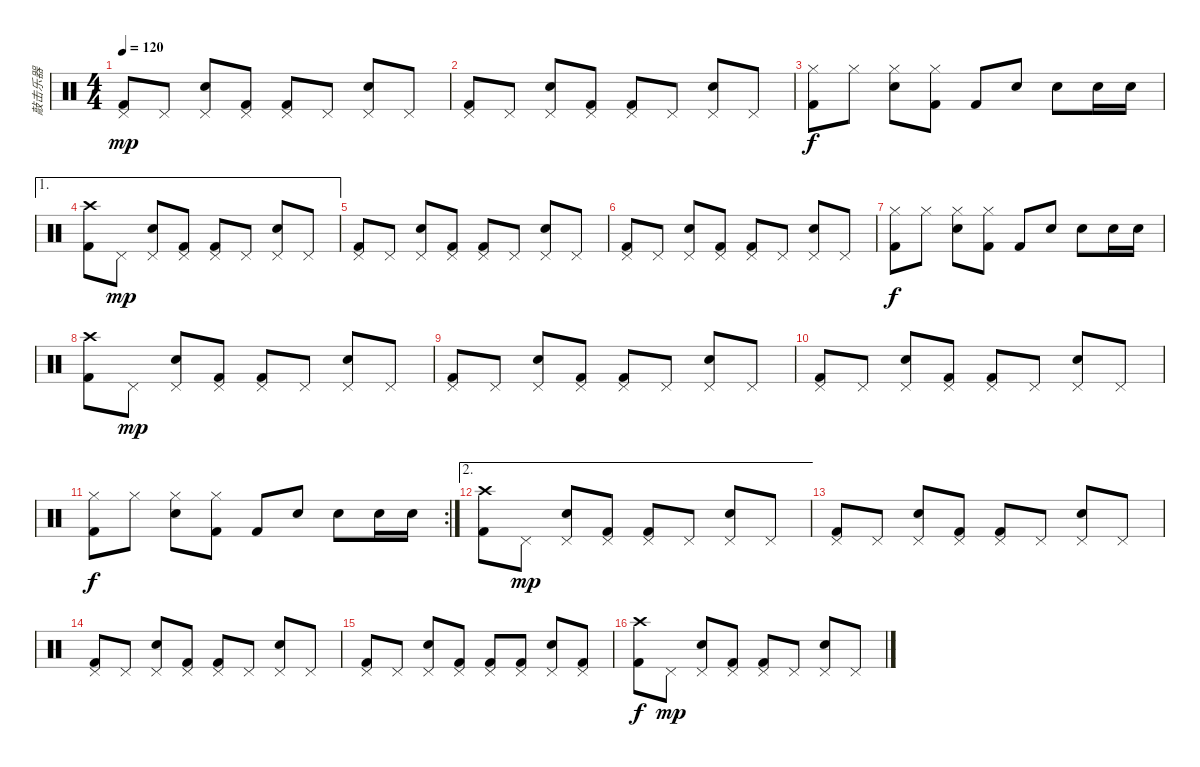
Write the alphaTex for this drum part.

\track ("敲击乐器" "敲击乐器") {instrument percussion}
\staff {score}
\articulation defaults
\ts (4 4)
\tempo 120
\clef neutral
\ks c
("Pedal Hi-Hat (hit)" "Kick (hit) 2").8{dy mp} "Pedal Hi-Hat (hit)".8 ("Pedal Hi-Hat (hit)" "Electric Snare (hit)").8 ("Pedal Hi-Hat (hit)" "Kick (hit) 2").8 ("Pedal Hi-Hat (hit)" "Kick (hit) 2").8 "Pedal Hi-Hat (hit)".8 ("Pedal Hi-Hat (hit)" "Electric Snare (hit)").8 "Pedal Hi-Hat (hit)".8 |
("Pedal Hi-Hat (hit)" "Kick (hit) 2").8 "Pedal Hi-Hat (hit)".8 ("Pedal Hi-Hat (hit)" "Electric Snare (hit)").8 ("Pedal Hi-Hat (hit)" "Kick (hit) 2").8 ("Pedal Hi-Hat (hit)" "Kick (hit) 2").8 "Pedal Hi-Hat (hit)".8 ("Pedal Hi-Hat (hit)" "Electric Snare (hit)").8 "Pedal Hi-Hat (hit)".8 |
("Hi-Hat (closed)" "Kick (hit) 2").8{dy f} "Hi-Hat (closed)".8 ("Hi-Hat (closed)" "Electric Snare (hit)").8 ("Hi-Hat (closed)" "Kick (hit) 2").8 "Kick (hit) 2".8 "Electric Snare (hit)".8 "Electric Snare (hit)".8 "Electric Snare (hit)".16 "Electric Snare (hit)".16 |
\ae 1
("Crash high (hit)" "Kick (hit) 2").8 "Pedal Hi-Hat (hit)".8{dy mp} ("Pedal Hi-Hat (hit)" "Electric Snare (hit)").8 ("Pedal Hi-Hat (hit)" "Kick (hit) 2").8 ("Pedal Hi-Hat (hit)" "Kick (hit) 2").8 "Pedal Hi-Hat (hit)".8 ("Pedal Hi-Hat (hit)" "Electric Snare (hit)").8 "Pedal Hi-Hat (hit)".8 |
("Pedal Hi-Hat (hit)" "Kick (hit) 2").8 "Pedal Hi-Hat (hit)".8 ("Pedal Hi-Hat (hit)" "Electric Snare (hit)").8 ("Pedal Hi-Hat (hit)" "Kick (hit) 2").8 ("Pedal Hi-Hat (hit)" "Kick (hit) 2").8 "Pedal Hi-Hat (hit)".8 ("Pedal Hi-Hat (hit)" "Electric Snare (hit)").8 "Pedal Hi-Hat (hit)".8 |
("Pedal Hi-Hat (hit)" "Kick (hit) 2").8 "Pedal Hi-Hat (hit)".8 ("Pedal Hi-Hat (hit)" "Electric Snare (hit)").8 ("Pedal Hi-Hat (hit)" "Kick (hit) 2").8 ("Pedal Hi-Hat (hit)" "Kick (hit) 2").8 "Pedal Hi-Hat (hit)".8 ("Pedal Hi-Hat (hit)" "Electric Snare (hit)").8 "Pedal Hi-Hat (hit)".8 |
("Hi-Hat (closed)" "Kick (hit) 2").8{dy f} "Hi-Hat (closed)".8 ("Hi-Hat (closed)" "Electric Snare (hit)").8 ("Hi-Hat (closed)" "Kick (hit) 2").8 "Kick (hit) 2".8 "Electric Snare (hit)".8 "Electric Snare (hit)".8 "Electric Snare (hit)".16 "Electric Snare (hit)".16 |
("Crash high (hit)" "Kick (hit) 2").8 "Pedal Hi-Hat (hit)".8{dy mp} ("Pedal Hi-Hat (hit)" "Electric Snare (hit)").8 ("Pedal Hi-Hat (hit)" "Kick (hit) 2").8 ("Pedal Hi-Hat (hit)" "Kick (hit) 2").8 "Pedal Hi-Hat (hit)".8 ("Pedal Hi-Hat (hit)" "Electric Snare (hit)").8 "Pedal Hi-Hat (hit)".8 |
("Pedal Hi-Hat (hit)" "Kick (hit) 2").8 "Pedal Hi-Hat (hit)".8 ("Pedal Hi-Hat (hit)" "Electric Snare (hit)").8 ("Pedal Hi-Hat (hit)" "Kick (hit) 2").8 ("Pedal Hi-Hat (hit)" "Kick (hit) 2").8 "Pedal Hi-Hat (hit)".8 ("Pedal Hi-Hat (hit)" "Electric Snare (hit)").8 "Pedal Hi-Hat (hit)".8 |
("Pedal Hi-Hat (hit)" "Kick (hit) 2").8 "Pedal Hi-Hat (hit)".8 ("Pedal Hi-Hat (hit)" "Electric Snare (hit)").8 ("Pedal Hi-Hat (hit)" "Kick (hit) 2").8 ("Pedal Hi-Hat (hit)" "Kick (hit) 2").8 "Pedal Hi-Hat (hit)".8 ("Pedal Hi-Hat (hit)" "Electric Snare (hit)").8 "Pedal Hi-Hat (hit)".8 |
\rc 2
("Hi-Hat (closed)" "Kick (hit) 2").8{dy f} "Hi-Hat (closed)".8 ("Hi-Hat (closed)" "Electric Snare (hit)").8 ("Hi-Hat (closed)" "Kick (hit) 2").8 "Kick (hit) 2".8 "Electric Snare (hit)".8 "Electric Snare (hit)".8 "Electric Snare (hit)".16 "Electric Snare (hit)".16 |
\ae 2
("Crash high (hit)" "Kick (hit) 2").8 "Pedal Hi-Hat (hit)".8{dy mp} ("Pedal Hi-Hat (hit)" "Electric Snare (hit)").8 ("Pedal Hi-Hat (hit)" "Kick (hit) 2").8 ("Pedal Hi-Hat (hit)" "Kick (hit) 2").8 "Pedal Hi-Hat (hit)".8 ("Pedal Hi-Hat (hit)" "Electric Snare (hit)").8 "Pedal Hi-Hat (hit)".8 |
("Pedal Hi-Hat (hit)" "Kick (hit) 2").8 "Pedal Hi-Hat (hit)".8 ("Pedal Hi-Hat (hit)" "Electric Snare (hit)").8 ("Pedal Hi-Hat (hit)" "Kick (hit) 2").8 ("Pedal Hi-Hat (hit)" "Kick (hit) 2").8 "Pedal Hi-Hat (hit)".8 ("Pedal Hi-Hat (hit)" "Electric Snare (hit)").8 "Pedal Hi-Hat (hit)".8 |
("Pedal Hi-Hat (hit)" "Kick (hit) 2").8 "Pedal Hi-Hat (hit)".8 ("Pedal Hi-Hat (hit)" "Electric Snare (hit)").8 ("Pedal Hi-Hat (hit)" "Kick (hit) 2").8 ("Pedal Hi-Hat (hit)" "Kick (hit) 2").8 "Pedal Hi-Hat (hit)".8 ("Pedal Hi-Hat (hit)" "Electric Snare (hit)").8 "Pedal Hi-Hat (hit)".8 |
("Pedal Hi-Hat (hit)" "Kick (hit) 2").8 "Pedal Hi-Hat (hit)".8 ("Pedal Hi-Hat (hit)" "Electric Snare (hit)").8 ("Pedal Hi-Hat (hit)" "Kick (hit) 2").8 ("Pedal Hi-Hat (hit)" "Kick (hit) 2").8 ("Pedal Hi-Hat (hit)" "Kick (hit) 2").8 ("Pedal Hi-Hat (hit)" "Electric Snare (hit)").8 ("Pedal Hi-Hat (hit)" "Kick (hit) 2").8 |
("Crash high (hit)" "Kick (hit) 2").8{dy f} "Pedal Hi-Hat (hit)".8{dy mp} ("Pedal Hi-Hat (hit)" "Electric Snare (hit)").8 ("Pedal Hi-Hat (hit)" "Kick (hit) 2").8 ("Pedal Hi-Hat (hit)" "Kick (hit) 2").8 "Pedal Hi-Hat (hit)".8 ("Pedal Hi-Hat (hit)" "Electric Snare (hit)").8 "Pedal Hi-Hat (hit)".8
